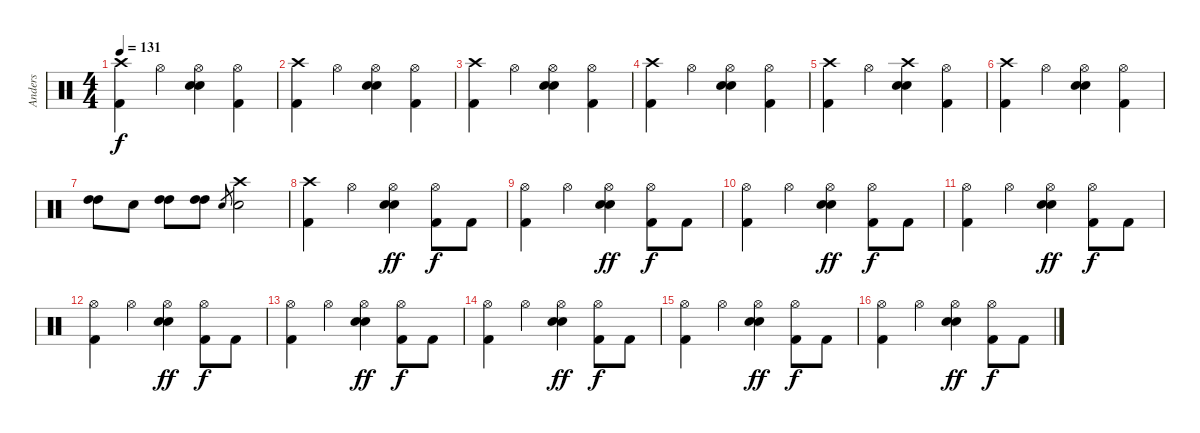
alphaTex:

\track ("Anders" "Anders") {instrument percussion}
\staff {score}
\articulation defaults
\ts (4 4)
\tempo 131
\clef neutral
\ks c
("Crash high (hit)" "Kick (hit) 2").4{dy f} "Hi-Hat (open)".4 ("Hi-Hat (open)" "Electric Snare (hit)" "Electric Snare (hit)").4 ("Hi-Hat (open)" "Kick (hit) 2").4 |
("Crash high (hit)" "Kick (hit) 2").4 "Hi-Hat (open)".4 ("Hi-Hat (open)" "Electric Snare (hit)" "Electric Snare (hit)").4 ("Hi-Hat (open)" "Kick (hit) 2").4 |
("Crash high (hit)" "Kick (hit) 2").4 "Hi-Hat (open)".4 ("Hi-Hat (open)" "Electric Snare (hit)" "Electric Snare (hit)").4 ("Hi-Hat (open)" "Kick (hit) 2").4 |
("Crash high (hit)" "Kick (hit) 2").4 "Hi-Hat (open)".4 ("Hi-Hat (open)" "Electric Snare (hit)" "Electric Snare (hit)").4 ("Hi-Hat (open)" "Kick (hit) 2").4 |
("Crash high (hit)" "Kick (hit) 2").4 "Hi-Hat (open)".4 ("Crash high (hit)" "Electric Snare (hit)" "Electric Snare (hit)").4 ("Hi-Hat (open)" "Kick (hit) 2").4 |
("Crash high (hit)" "Kick (hit) 2").4 "Hi-Hat (open)".4 ("Hi-Hat (open)" "Electric Snare (hit)" "Electric Snare (hit)").4 ("Hi-Hat (open)" "Kick (hit) 2").4 |
("High Tom (hit)" "High Tom (hit)").8 "Electric Snare (hit)".8 ("High Tom (hit)" "High Tom (hit)").8 ("High Tom (hit)" "High Tom (hit)").8 "Electric Snare (hit)".8{gr} ("Crash high (hit)" "Electric Snare (hit)").2 |
("Crash high (hit)" "Kick (hit) 2").4 "Hi-Hat (open)".4 ("Hi-Hat (open)" "Electric Snare (hit)" "Electric Snare (hit)").4{dy ff} ("Hi-Hat (open)" "Kick (hit) 2").8{dy f} "Kick (hit) 2".8 |
("Hi-Hat (open)" "Kick (hit) 2").4 "Hi-Hat (open)".4 ("Hi-Hat (open)" "Electric Snare (hit)" "Electric Snare (hit)").4{dy ff} ("Hi-Hat (open)" "Kick (hit) 2").8{dy f} "Kick (hit) 2".8 |
("Hi-Hat (open)" "Kick (hit) 2").4 "Hi-Hat (open)".4 ("Hi-Hat (open)" "Electric Snare (hit)" "Electric Snare (hit)").4{dy ff} ("Hi-Hat (open)" "Kick (hit) 2").8{dy f} "Kick (hit) 2".8 |
("Hi-Hat (open)" "Kick (hit) 2").4 "Hi-Hat (open)".4 ("Hi-Hat (open)" "Electric Snare (hit)" "Electric Snare (hit)").4{dy ff} ("Hi-Hat (open)" "Kick (hit) 2").8{dy f} "Kick (hit) 2".8 |
("Hi-Hat (open)" "Kick (hit) 2").4 "Hi-Hat (open)".4 ("Hi-Hat (open)" "Electric Snare (hit)" "Electric Snare (hit)").4{dy ff} ("Hi-Hat (open)" "Kick (hit) 2").8{dy f} "Kick (hit) 2".8 |
("Hi-Hat (open)" "Kick (hit) 2").4 "Hi-Hat (open)".4 ("Hi-Hat (open)" "Electric Snare (hit)" "Electric Snare (hit)").4{dy ff} ("Hi-Hat (open)" "Kick (hit) 2").8{dy f} "Kick (hit) 2".8 |
("Hi-Hat (open)" "Kick (hit) 2").4 "Hi-Hat (open)".4 ("Hi-Hat (open)" "Electric Snare (hit)" "Electric Snare (hit)").4{dy ff} ("Hi-Hat (open)" "Kick (hit) 2").8{dy f} "Kick (hit) 2".8 |
("Hi-Hat (open)" "Kick (hit) 2").4 "Hi-Hat (open)".4 ("Hi-Hat (open)" "Electric Snare (hit)" "Electric Snare (hit)").4{dy ff} ("Hi-Hat (open)" "Kick (hit) 2").8{dy f} "Kick (hit) 2".8 |
("Hi-Hat (open)" "Kick (hit) 2").4 "Hi-Hat (open)".4 ("Hi-Hat (open)" "Electric Snare (hit)" "Electric Snare (hit)").4{dy ff} ("Hi-Hat (open)" "Kick (hit) 2").8{dy f} "Kick (hit) 2".8
